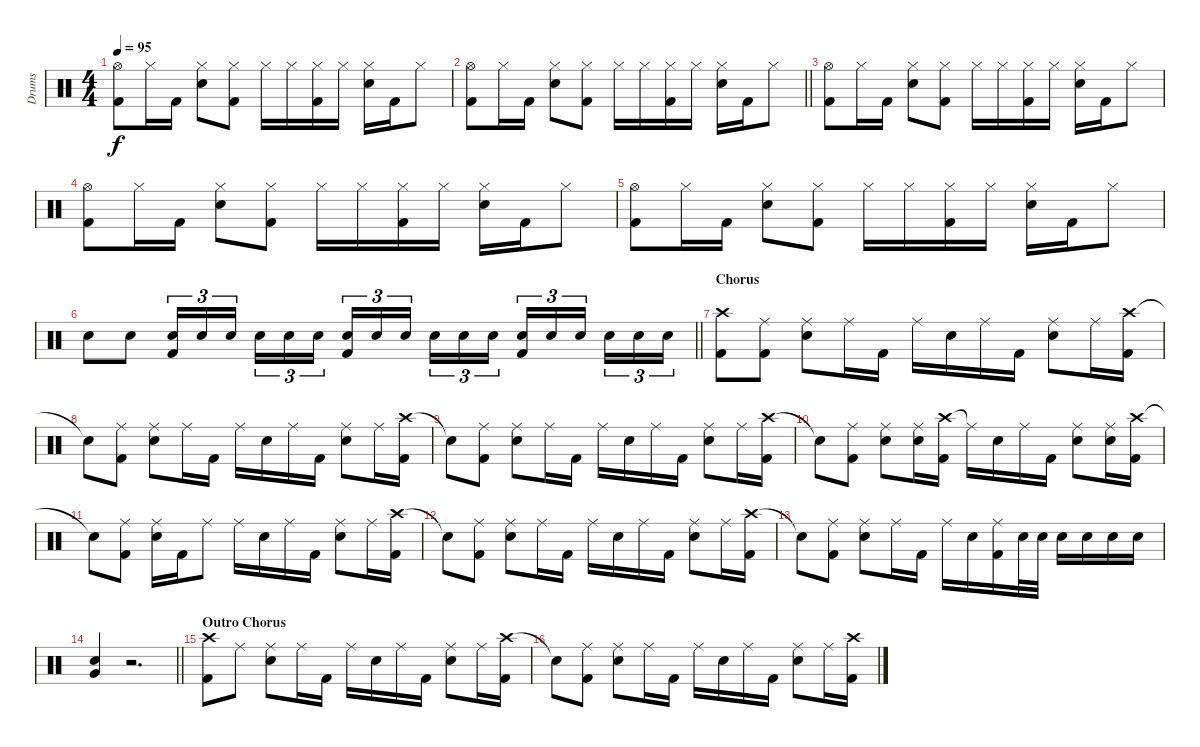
\track ("Drums" "Drums") {instrument percussion}
\staff {score}
\articulation defaults
\ts (4 4)
\tempo 95
\clef neutral
\ks c
("Hi-Hat (open)" "Kick (hit) 2").8{dy f} "Hi-Hat (closed)".16 "Kick (hit) 2".16 ("Hi-Hat (closed)" "Snare (hit) 2").8 ("Hi-Hat (closed)" "Kick (hit) 2").8 "Hi-Hat (closed)".16 "Hi-Hat (closed)".16 ("Hi-Hat (closed)" "Kick (hit) 2").16 "Hi-Hat (closed)".16 ("Hi-Hat (closed)" "Snare (hit) 2").16 "Kick (hit) 2".16 "Hi-Hat (closed)".8 |
\barLineRight lightlight
("Hi-Hat (open)" "Kick (hit) 2").8 "Hi-Hat (closed)".16 "Kick (hit) 2".16 ("Hi-Hat (closed)" "Snare (hit) 2").8 ("Hi-Hat (closed)" "Kick (hit) 2").8 "Hi-Hat (closed)".16 "Hi-Hat (closed)".16 ("Hi-Hat (closed)" "Kick (hit) 2").16 "Hi-Hat (closed)".16 ("Hi-Hat (closed)" "Snare (hit) 2").16 "Kick (hit) 2".16 "Hi-Hat (closed)".8 |
("Hi-Hat (open)" "Kick (hit) 2").8 "Hi-Hat (closed)".16 "Kick (hit) 2".16 ("Hi-Hat (closed)" "Snare (hit) 2").8 ("Hi-Hat (closed)" "Kick (hit) 2").8 "Hi-Hat (closed)".16 "Hi-Hat (closed)".16 ("Hi-Hat (closed)" "Kick (hit) 2").16 "Hi-Hat (closed)".16 ("Hi-Hat (closed)" "Snare (hit) 2").16 "Kick (hit) 2".16 "Hi-Hat (closed)".8 |
("Hi-Hat (open)" "Kick (hit) 2").8 "Hi-Hat (closed)".16 "Kick (hit) 2".16 ("Hi-Hat (closed)" "Snare (hit) 2").8 ("Hi-Hat (closed)" "Kick (hit) 2").8 "Hi-Hat (closed)".16 "Hi-Hat (closed)".16 ("Hi-Hat (closed)" "Kick (hit) 2").16 "Hi-Hat (closed)".16 ("Hi-Hat (closed)" "Snare (hit) 2").16 "Kick (hit) 2".16 "Hi-Hat (closed)".8 |
("Hi-Hat (open)" "Kick (hit) 2").8 "Hi-Hat (closed)".16 "Kick (hit) 2".16 ("Hi-Hat (closed)" "Snare (hit) 2").8 ("Hi-Hat (closed)" "Kick (hit) 2").8 "Hi-Hat (closed)".16 "Hi-Hat (closed)".16 ("Hi-Hat (closed)" "Kick (hit) 2").16 "Hi-Hat (closed)".16 ("Hi-Hat (closed)" "Snare (hit) 2").16 "Kick (hit) 2".16 "Hi-Hat (closed)".8 |
\barLineRight lightlight "Snare (hit) 2".8 "Snare (hit) 2".8
("Snare (hit) 2" "Kick (hit) 2").16{tu (3 2)} "Snare (hit) 2".16{tu (3 2)} "Snare (hit) 2".16{tu (3 2) beam splitsecondary} "Snare (hit) 2".16{tu (3 2)} "Snare (hit) 2".16{tu (3 2)} "Snare (hit) 2".16{tu (3 2)} ("Snare (hit) 2" "Kick (hit) 2").16{tu (3 2)} "Snare (hit) 2".16{tu (3 2)} "Snare (hit) 2".16{tu (3 2) beam splitsecondary} "Snare (hit) 2".16{tu (3 2)} "Snare (hit) 2".16{tu (3 2)} "Snare (hit) 2".16{tu (3 2)} ("Snare (hit) 2" "Kick (hit) 2").16{tu (3 2)} "Snare (hit) 2".16{tu (3 2)} "Snare (hit) 2".16{tu (3 2) beam splitsecondary} "Snare (hit) 2".16{tu (3 2)} "Snare (hit) 2".16{tu (3 2)} "Snare (hit) 2".16{tu (3 2)} |
\section ("" "Chorus")
("Crash high (hit)" "Kick (hit) 2").8 ("Ride (middle)" "Kick (hit) 2").8 ("Ride (middle)" "Snare (hit) 2").8 "Ride (middle)".16 "Kick (hit) 2".16 "Ride (middle)".16 "Snare (hit) 2".16 "Ride (middle)".16 "Kick (hit) 2".16 ("Ride (middle)" "Snare (hit) 2").8 "Ride (middle)".16 ("Crash high (hit)" "Kick (hit) 2").16 |
"Snare (hit)"{t}.8 ("Ride (middle)" "Kick (hit) 2").8 ("Ride (middle)" "Snare (hit) 2").8 "Ride (middle)".16 "Kick (hit) 2".16 "Ride (middle)".16 "Snare (hit) 2".16 "Ride (middle)".16 "Kick (hit) 2".16 ("Ride (middle)" "Snare (hit) 2").8 "Ride (middle)".16 ("Crash high (hit)" "Kick (hit) 2").16 |
"Snare (hit)"{t}.8 ("Ride (middle)" "Kick (hit) 2").8 ("Ride (middle)" "Snare (hit) 2").8 "Ride (middle)".16 "Kick (hit) 2".16 "Ride (middle)".16 "Snare (hit) 2".16 "Ride (middle)".16 "Kick (hit) 2".16 ("Ride (middle)" "Snare (hit) 2").8 "Ride (middle)".16 ("Crash high (hit)" "Kick (hit) 2").16 |
"Snare (hit)"{t}.8 ("Ride (middle)" "Kick (hit) 2").8 ("Ride (middle)" "Snare (hit) 2").8 ("Ride (middle)" "Snare (hit) 2").16 ("Crash high (hit)" "Kick (hit) 2").16 "Ride (middle)"{t}.16 "Snare (hit) 2".16 "Ride (middle)".16 "Kick (hit) 2".16 ("Ride (middle)" "Snare (hit) 2").8 ("Ride (middle)" "Snare (hit) 2").16 ("Crash high (hit)" "Kick (hit) 2").16 |
"Snare (hit)"{t}.8 ("Ride (middle)" "Kick (hit) 2").8 ("Ride (middle)" "Snare (hit) 2").16 "Kick (hit) 2".16 "Ride (middle)".8 "Ride (middle)".16 "Snare (hit) 2".16 "Ride (middle)".16 "Kick (hit) 2".16 ("Ride (middle)" "Snare (hit) 2").8 "Ride (middle)".16 ("Crash high (hit)" "Kick (hit) 2").16 |
"Snare (hit)"{t}.8 ("Ride (middle)" "Kick (hit) 2").8 ("Ride (middle)" "Snare (hit) 2").8 "Ride (middle)".16 "Kick (hit) 2".16 "Ride (middle)".16 "Snare (hit) 2".16 "Ride (middle)".16 "Kick (hit) 2".16 ("Ride (middle)" "Snare (hit) 2").8 "Ride (middle)".16 ("Crash high (hit)" "Kick (hit) 2").16 |
"Snare (hit)"{t}.8 ("Ride (middle)" "Kick (hit) 2").8 ("Ride (middle)" "Snare (hit) 2").8 "Ride (middle)".16 "Kick (hit) 2".16 "Ride (middle)".16 "Snare (hit) 2".16 ("Ride (middle)" "Kick (hit) 2").16 "Snare (hit) 2".32 "Snare (hit) 2".32 "Snare (hit) 2".16 "Snare (hit) 2".16 "Snare (hit) 2".16 "Snare (hit) 2".16 |
\barLineRight lightlight
("Snare (hit) 2" "Very Low Tom (hit)").4 r.2{d} |
\section ("" "Outro Chorus")
("Crash high (hit)" "Kick (hit) 2").8 "Ride (middle)".8 ("Ride (middle)" "Snare (hit) 2").8 "Ride (middle)".16 "Kick (hit) 2".16 "Ride (middle)".16 "Snare (hit) 2".16 "Ride (middle)".16 "Kick (hit) 2".16 ("Ride (middle)" "Snare (hit) 2").8 "Ride (middle)".16 ("Crash high (hit)" "Kick (hit) 2").16 |
"Snare (hit)"{t}.8 ("Ride (middle)" "Kick (hit) 2").8 ("Ride (middle)" "Snare (hit) 2").8 "Ride (middle)".16 "Kick (hit) 2".16 "Ride (middle)".16 "Snare (hit) 2".16 "Ride (middle)".16 "Kick (hit) 2".16 ("Ride (middle)" "Snare (hit) 2").8 "Ride (middle)".16 ("Crash high (hit)" "Kick (hit) 2").16
